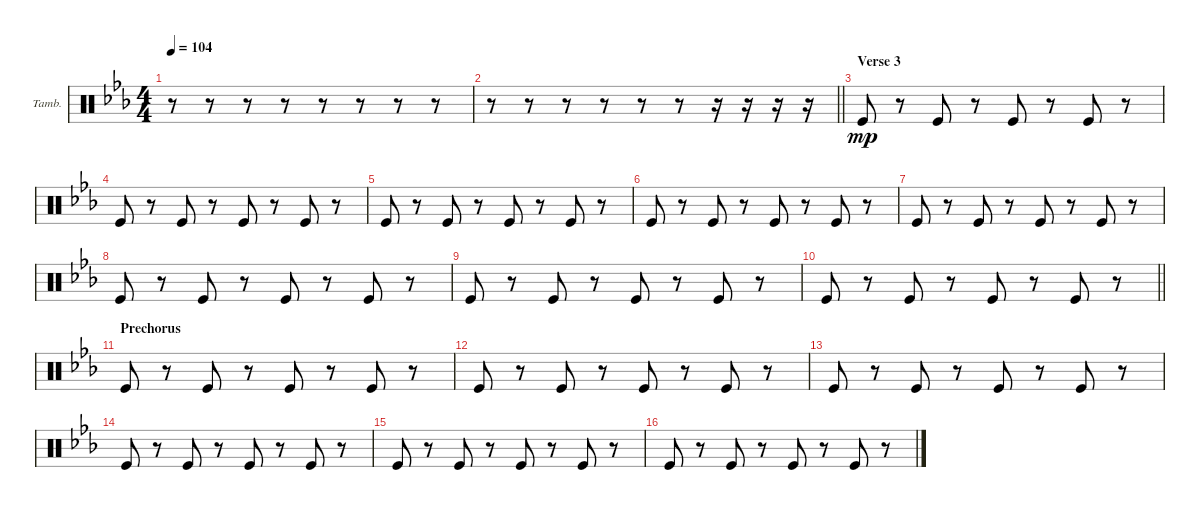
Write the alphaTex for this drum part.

\bracketExtendMode groupsimilarinstruments
\firstSystemTrackNameOrientation horizontal
\otherSystemsTrackNameOrientation horizontal
\track ("Tambourine" "Tamb.") {instrument percussion}
\staff {score}
\articulation defaults
\ts (4 4)
\tempo 104
\clef neutral
\ks eb
r.8{dy mp} r.8 r.8 r.8 r.8 r.8 r.8 r.8 |
\barLineRight lightlight
r.8 r.8 r.8 r.8 r.8 r.8 r.16 r.16 r.16 r.16 |
\section ("" "Verse 3")
"Kick (hit)".8 r.8 "Kick (hit)".8 r.8 "Kick (hit)".8 r.8 "Kick (hit)".8 r.8 |
"Kick (hit)".8 r.8 "Kick (hit)".8 r.8 "Kick (hit)".8 r.8 "Kick (hit)".8 r.8 |
"Kick (hit)".8 r.8 "Kick (hit)".8 r.8 "Kick (hit)".8 r.8 "Kick (hit)".8 r.8 |
"Kick (hit)".8 r.8 "Kick (hit)".8 r.8 "Kick (hit)".8 r.8 "Kick (hit)".8 r.8 |
"Kick (hit)".8 r.8 "Kick (hit)".8 r.8 "Kick (hit)".8 r.8 "Kick (hit)".8 r.8 |
"Kick (hit)".8 r.8 "Kick (hit)".8 r.8 "Kick (hit)".8 r.8 "Kick (hit)".8 r.8 |
"Kick (hit)".8 r.8 "Kick (hit)".8 r.8 "Kick (hit)".8 r.8 "Kick (hit)".8 r.8 |
\barLineRight lightlight "Kick (hit)".8
r.8 "Kick (hit)".8 r.8 "Kick (hit)".8 r.8 "Kick (hit)".8 r.8 |
\section ("" "Prechorus")
"Kick (hit)".8 r.8 "Kick (hit)".8 r.8 "Kick (hit)".8 r.8 "Kick (hit)".8 r.8 |
"Kick (hit)".8 r.8 "Kick (hit)".8 r.8 "Kick (hit)".8 r.8 "Kick (hit)".8 r.8 |
"Kick (hit)".8 r.8 "Kick (hit)".8 r.8 "Kick (hit)".8 r.8 "Kick (hit)".8 r.8 |
"Kick (hit)".8 r.8 "Kick (hit)".8 r.8 "Kick (hit)".8 r.8 "Kick (hit)".8 r.8 |
"Kick (hit)".8 r.8 "Kick (hit)".8 r.8 "Kick (hit)".8 r.8 "Kick (hit)".8 r.8 |
"Kick (hit)".8 r.8 "Kick (hit)".8 r.8 "Kick (hit)".8 r.8 "Kick (hit)".8 r.8
